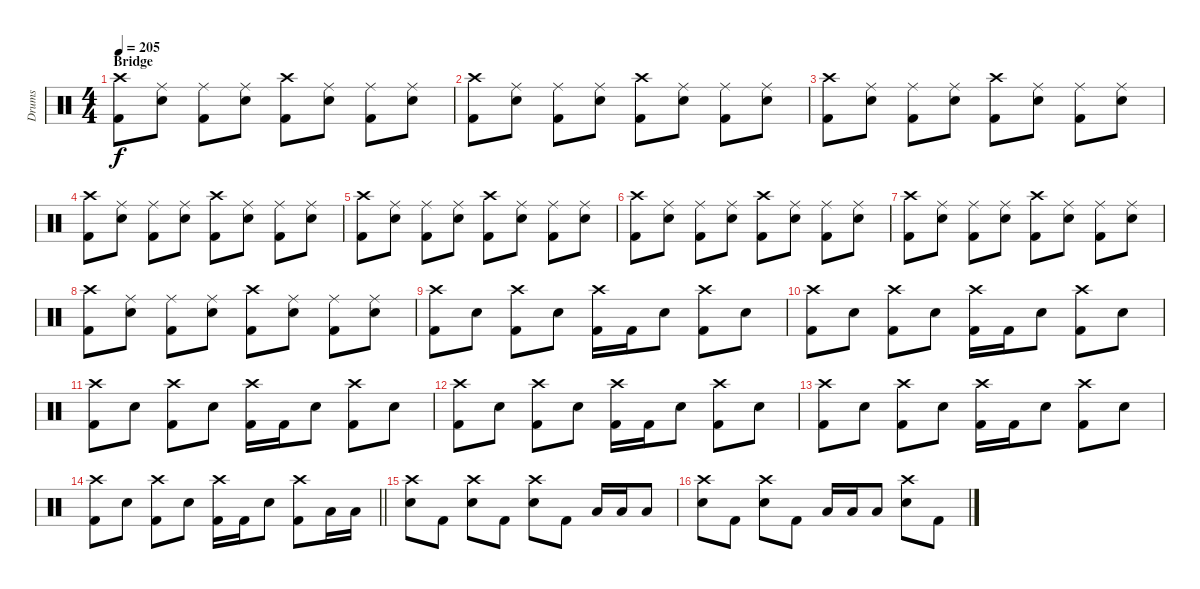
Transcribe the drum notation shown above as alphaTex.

\track ("Drums" "Drums") {instrument percussion}
\staff {score}
\articulation defaults
\ts (4 4)
\section ("" "Bridge")
\tempo 205
\clef neutral
\ks c
("Crash high (hit)" "Kick (hit) 2").8{dy f} ("Ride (middle)" "Electric Snare (hit)").8 ("Ride (middle)" "Kick (hit) 2").8 ("Ride (middle)" "Electric Snare (hit)").8 ("Crash high (hit)" "Kick (hit) 2").8 ("Ride (middle)" "Electric Snare (hit)").8 ("Ride (middle)" "Kick (hit) 2").8 ("Ride (middle)" "Electric Snare (hit)").8 |
("Crash high (hit)" "Kick (hit) 2").8 ("Ride (middle)" "Electric Snare (hit)").8 ("Ride (middle)" "Kick (hit) 2").8 ("Ride (middle)" "Electric Snare (hit)").8 ("Crash high (hit)" "Kick (hit) 2").8 ("Ride (middle)" "Electric Snare (hit)").8 ("Ride (middle)" "Kick (hit) 2").8 ("Ride (middle)" "Electric Snare (hit)").8 |
("Crash high (hit)" "Kick (hit) 2").8 ("Ride (middle)" "Electric Snare (hit)").8 ("Ride (middle)" "Kick (hit) 2").8 ("Ride (middle)" "Electric Snare (hit)").8 ("Crash high (hit)" "Kick (hit) 2").8 ("Ride (middle)" "Electric Snare (hit)").8 ("Ride (middle)" "Kick (hit) 2").8 ("Ride (middle)" "Electric Snare (hit)").8 |
("Crash high (hit)" "Kick (hit) 2").8 ("Ride (middle)" "Electric Snare (hit)").8 ("Ride (middle)" "Kick (hit) 2").8 ("Ride (middle)" "Electric Snare (hit)").8 ("Crash high (hit)" "Kick (hit) 2").8 ("Ride (middle)" "Electric Snare (hit)").8 ("Ride (middle)" "Kick (hit) 2").8 ("Ride (middle)" "Electric Snare (hit)").8 |
("Crash high (hit)" "Kick (hit) 2").8 ("Ride (middle)" "Electric Snare (hit)").8 ("Ride (middle)" "Kick (hit) 2").8 ("Ride (middle)" "Electric Snare (hit)").8 ("Crash high (hit)" "Kick (hit) 2").8 ("Ride (middle)" "Electric Snare (hit)").8 ("Ride (middle)" "Kick (hit) 2").8 ("Ride (middle)" "Electric Snare (hit)").8 |
("Crash high (hit)" "Kick (hit) 2").8 ("Ride (middle)" "Electric Snare (hit)").8 ("Ride (middle)" "Kick (hit) 2").8 ("Ride (middle)" "Electric Snare (hit)").8 ("Crash high (hit)" "Kick (hit) 2").8 ("Ride (middle)" "Electric Snare (hit)").8 ("Ride (middle)" "Kick (hit) 2").8 ("Ride (middle)" "Electric Snare (hit)").8 |
("Crash high (hit)" "Kick (hit) 2").8 ("Ride (middle)" "Electric Snare (hit)").8 ("Ride (middle)" "Kick (hit) 2").8 ("Ride (middle)" "Electric Snare (hit)").8 ("Crash high (hit)" "Kick (hit) 2").8 ("Ride (middle)" "Electric Snare (hit)").8 ("Ride (middle)" "Kick (hit) 2").8 ("Ride (middle)" "Electric Snare (hit)").8 |
("Crash high (hit)" "Kick (hit) 2").8 ("Ride (middle)" "Electric Snare (hit)").8 ("Ride (middle)" "Kick (hit) 2").8 ("Ride (middle)" "Electric Snare (hit)").8 ("Crash high (hit)" "Kick (hit) 2").8 ("Ride (middle)" "Electric Snare (hit)").8 ("Ride (middle)" "Kick (hit) 2").8 ("Ride (middle)" "Electric Snare (hit)").8 |
("Crash high (hit)" "Kick (hit) 2").8 "Electric Snare (hit)".8 ("Crash high (hit)" "Kick (hit) 2").8 "Electric Snare (hit)".8 ("Crash high (hit)" "Kick (hit) 2").16 "Kick (hit) 2".16 "Electric Snare (hit)".8 ("Crash high (hit)" "Kick (hit) 2").8 "Electric Snare (hit)".8 |
("Crash high (hit)" "Kick (hit) 2").8 "Electric Snare (hit)".8 ("Crash high (hit)" "Kick (hit) 2").8 "Electric Snare (hit)".8 ("Crash high (hit)" "Kick (hit) 2").16 "Kick (hit) 2".16 "Electric Snare (hit)".8 ("Crash high (hit)" "Kick (hit) 2").8 "Electric Snare (hit)".8 |
("Crash high (hit)" "Kick (hit) 2").8 "Electric Snare (hit)".8 ("Crash high (hit)" "Kick (hit) 2").8 "Electric Snare (hit)".8 ("Crash high (hit)" "Kick (hit) 2").16 "Kick (hit) 2".16 "Electric Snare (hit)".8 ("Crash high (hit)" "Kick (hit) 2").8 "Electric Snare (hit)".8 |
("Crash high (hit)" "Kick (hit) 2").8 "Electric Snare (hit)".8 ("Crash high (hit)" "Kick (hit) 2").8 "Electric Snare (hit)".8 ("Crash high (hit)" "Kick (hit) 2").16 "Kick (hit) 2".16 "Electric Snare (hit)".8 ("Crash high (hit)" "Kick (hit) 2").8 "Electric Snare (hit)".8 |
("Crash high (hit)" "Kick (hit) 2").8 "Electric Snare (hit)".8 ("Crash high (hit)" "Kick (hit) 2").8 "Electric Snare (hit)".8 ("Crash high (hit)" "Kick (hit) 2").16 "Kick (hit) 2".16 "Electric Snare (hit)".8 ("Crash high (hit)" "Kick (hit) 2").8 "Electric Snare (hit)".8 |
\barLineRight lightlight
("Crash high (hit)" "Kick (hit) 2").8 "Electric Snare (hit)".8 ("Crash high (hit)" "Kick (hit) 2").8 "Electric Snare (hit)".8 ("Crash high (hit)" "Kick (hit) 2").16 "Kick (hit) 2".16 "Electric Snare (hit)".8 ("Crash high (hit)" "Kick (hit) 2").8 "Low Tom (hit)".16 "Low Tom (hit)".16 |
\section ("" "")
("Crash high (hit)" "Electric Snare (hit)").8 "Kick (hit) 2".8 ("Crash high (hit)" "Electric Snare (hit)").8 "Kick (hit) 2".8 ("Crash high (hit)" "Electric Snare (hit)").8 "Kick (hit) 2".8 "Low Tom (hit)".16 "Low Tom (hit)".16 "Low Tom (hit)".8 |
("Crash high (hit)" "Electric Snare (hit)").8 "Kick (hit) 2".8 ("Crash high (hit)" "Electric Snare (hit)").8 "Kick (hit) 2".8 "Low Tom (hit)".16 "Low Tom (hit)".16 "Low Tom (hit)".8 ("Crash high (hit)" "Electric Snare (hit)").8 "Kick (hit) 2".8
